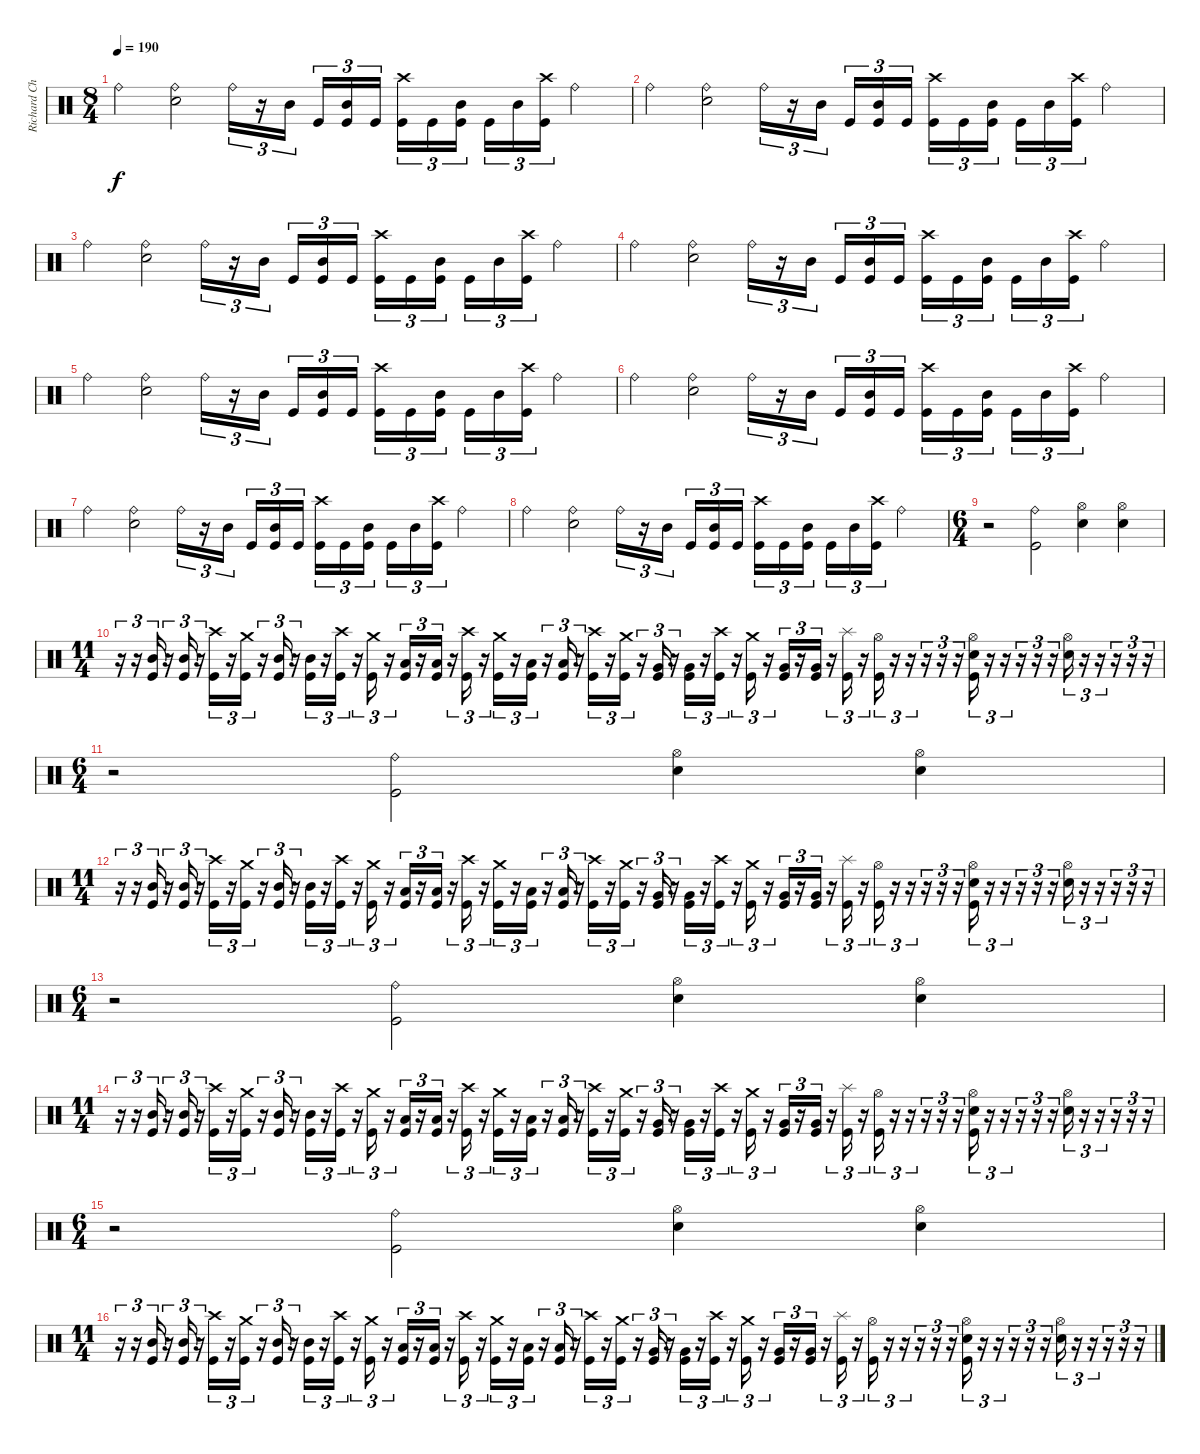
\track ("Richard Christy" "Richard Ch") {instrument percussion}
\staff {score}
\articulation defaults
\ts (8 4)
\tempo 190
\clef neutral
\ks c "Ride (bell)".2{dy f}
("Ride (bell)" "Snare (hit) 2").2 "Ride (bell)".16{tu (3 2)} r.16{tu (3 2)} "Mid Tom (hit)".16{tu (3 2)} "Kick (hit)".16{tu (3 2)} ("Mid Tom (hit)" "Kick (hit)").16{tu (3 2)} "Kick (hit)".16{tu (3 2)} ("Crash high (hit)" "Kick (hit)").16{tu (3 2)} "Kick (hit)".16{tu (3 2)} ("Mid Tom (hit)" "Kick (hit)").16{tu (3 2)} "Kick (hit)".16{tu (3 2)} "Mid Tom (hit)".16{tu (3 2)} ("Crash high (hit)" "Kick (hit)").16{tu (3 2)} "Ride (bell)".2 |
"Ride (bell)".2 ("Ride (bell)" "Snare (hit) 2").2 "Ride (bell)".16{tu (3 2)} r.16{tu (3 2)} "Mid Tom (hit)".16{tu (3 2)} "Kick (hit)".16{tu (3 2)} ("Mid Tom (hit)" "Kick (hit)").16{tu (3 2)} "Kick (hit)".16{tu (3 2)} ("Crash high (hit)" "Kick (hit)").16{tu (3 2)} "Kick (hit)".16{tu (3 2)} ("Mid Tom (hit)" "Kick (hit)").16{tu (3 2)} "Kick (hit)".16{tu (3 2)} "Mid Tom (hit)".16{tu (3 2)} ("Crash high (hit)" "Kick (hit)").16{tu (3 2)} "Ride (bell)".2 |
"Ride (bell)".2 ("Ride (bell)" "Snare (hit) 2").2 "Ride (bell)".16{tu (3 2)} r.16{tu (3 2)} "Mid Tom (hit)".16{tu (3 2)} "Kick (hit)".16{tu (3 2)} ("Mid Tom (hit)" "Kick (hit)").16{tu (3 2)} "Kick (hit)".16{tu (3 2)} ("Crash high (hit)" "Kick (hit)").16{tu (3 2)} "Kick (hit)".16{tu (3 2)} ("Mid Tom (hit)" "Kick (hit)").16{tu (3 2)} "Kick (hit)".16{tu (3 2)} "Mid Tom (hit)".16{tu (3 2)} ("Crash high (hit)" "Kick (hit)").16{tu (3 2)} "Ride (bell)".2 |
"Ride (bell)".2 ("Ride (bell)" "Snare (hit) 2").2 "Ride (bell)".16{tu (3 2)} r.16{tu (3 2)} "Mid Tom (hit)".16{tu (3 2)} "Kick (hit)".16{tu (3 2)} ("Mid Tom (hit)" "Kick (hit)").16{tu (3 2)} "Kick (hit)".16{tu (3 2)} ("Crash high (hit)" "Kick (hit)").16{tu (3 2)} "Kick (hit)".16{tu (3 2)} ("Mid Tom (hit)" "Kick (hit)").16{tu (3 2)} "Kick (hit)".16{tu (3 2)} "Mid Tom (hit)".16{tu (3 2)} ("Crash high (hit)" "Kick (hit)").16{tu (3 2)} "Ride (bell)".2 |
"Ride (bell)".2 ("Ride (bell)" "Snare (hit) 2").2 "Ride (bell)".16{tu (3 2)} r.16{tu (3 2)} "Mid Tom (hit)".16{tu (3 2)} "Kick (hit)".16{tu (3 2)} ("Mid Tom (hit)" "Kick (hit)").16{tu (3 2)} "Kick (hit)".16{tu (3 2)} ("Crash high (hit)" "Kick (hit)").16{tu (3 2)} "Kick (hit)".16{tu (3 2)} ("Mid Tom (hit)" "Kick (hit)").16{tu (3 2)} "Kick (hit)".16{tu (3 2)} "Mid Tom (hit)".16{tu (3 2)} ("Crash high (hit)" "Kick (hit)").16{tu (3 2)} "Ride (bell)".2 |
"Ride (bell)".2 ("Ride (bell)" "Snare (hit) 2").2 "Ride (bell)".16{tu (3 2)} r.16{tu (3 2)} "Mid Tom (hit)".16{tu (3 2)} "Kick (hit)".16{tu (3 2)} ("Mid Tom (hit)" "Kick (hit)").16{tu (3 2)} "Kick (hit)".16{tu (3 2)} ("Crash high (hit)" "Kick (hit)").16{tu (3 2)} "Kick (hit)".16{tu (3 2)} ("Mid Tom (hit)" "Kick (hit)").16{tu (3 2)} "Kick (hit)".16{tu (3 2)} "Mid Tom (hit)".16{tu (3 2)} ("Crash high (hit)" "Kick (hit)").16{tu (3 2)} "Ride (bell)".2 |
"Ride (bell)".2 ("Ride (bell)" "Snare (hit) 2").2 "Ride (bell)".16{tu (3 2)} r.16{tu (3 2)} "Mid Tom (hit)".16{tu (3 2)} "Kick (hit)".16{tu (3 2)} ("Mid Tom (hit)" "Kick (hit)").16{tu (3 2)} "Kick (hit)".16{tu (3 2)} ("Crash high (hit)" "Kick (hit)").16{tu (3 2)} "Kick (hit)".16{tu (3 2)} ("Mid Tom (hit)" "Kick (hit)").16{tu (3 2)} "Kick (hit)".16{tu (3 2)} "Mid Tom (hit)".16{tu (3 2)} ("Crash high (hit)" "Kick (hit)").16{tu (3 2)} "Ride (bell)".2 |
"Ride (bell)".2 ("Ride (bell)" "Snare (hit) 2").2 "Ride (bell)".16{tu (3 2)} r.16{tu (3 2)} "Mid Tom (hit)".16{tu (3 2)} "Kick (hit)".16{tu (3 2)} ("Mid Tom (hit)" "Kick (hit)").16{tu (3 2)} "Kick (hit)".16{tu (3 2)} ("Crash high (hit)" "Kick (hit)").16{tu (3 2)} "Kick (hit)".16{tu (3 2)} ("Mid Tom (hit)" "Kick (hit)").16{tu (3 2)} "Kick (hit)".16{tu (3 2)} "Mid Tom (hit)".16{tu (3 2)} ("Crash high (hit)" "Kick (hit)").16{tu (3 2)} "Ride (bell)".2 |
\ts (6 4)
r.2 ("Ride (bell)" "Kick (hit)").2 ("Hi-Hat (open)" "Snare (hit) 2").4 ("Hi-Hat (open)" "Snare (hit) 2").4 |
\ts (11 4)
r.16{tu (3 2)} r.16{tu (3 2)} ("Mid Tom (hit)" "Kick (hit)").16{tu (3 2)} r.16{tu (3 2)} ("Mid Tom (hit)" "Kick (hit)").16{tu (3 2)} r.16{tu (3 2)} ("Crash high (hit)" "Kick (hit)").16{tu (3 2)} r.16{tu (3 2)} ("Crash medium (hit)" "Kick (hit)").16{tu (3 2)} r.16{tu (3 2)} ("Mid Tom (hit)" "Kick (hit)").16{tu (3 2)} r.16{tu (3 2)} ("Mid Tom (hit)" "Kick (hit)").16{tu (3 2)} r.16{tu (3 2)} ("Crash high (hit)" "Kick (hit)").16{tu (3 2)} r.16{tu (3 2)} ("Crash medium (hit)" "Kick (hit)").16{tu (3 2)} r.16{tu (3 2)} ("Low Tom (hit)" "Kick (hit)").16{tu (3 2)} r.16{tu (3 2)} ("Low Tom (hit)" "Kick (hit)").16{tu (3 2)} r.16{tu (3 2)} ("Crash high (hit)" "Kick (hit)").16{tu (3 2)} r.16{tu (3 2)} ("Crash medium (hit)" "Kick (hit)").16{tu (3 2)} r.16{tu (3 2)} ("Low Tom (hit)" "Kick (hit)").16{tu (3 2)} r.16{tu (3 2)} ("Low Tom (hit)" "Kick (hit)").16{tu (3 2)} r.16{tu (3 2)} ("Crash high (hit)" "Kick (hit)").16{tu (3 2)} r.16{tu (3 2)} ("Crash medium (hit)" "Kick (hit)").16{tu (3 2)} r.16{tu (3 2)} ("Very Low Tom (hit)" "Kick (hit)").16{tu (3 2)} r.16{tu (3 2)} ("Very Low Tom (hit)" "Kick (hit)").16{tu (3 2)} r.16{tu (3 2)} ("Crash high (hit)" "Kick (hit)").16{tu (3 2)} r.16{tu (3 2)} ("Crash medium (hit)" "Kick (hit)").16{tu (3 2)} r.16{tu (3 2)} ("Very Low Tom (hit)" "Kick (hit)").16{tu (3 2)} r.16{tu (3 2)} ("Very Low Tom (hit)" "Kick (hit)").16{tu (3 2)} r.16{tu (3 2)} ("Splash (hit)" "Kick (hit)").16{tu (3 2)} r.16{tu (3 2)} ("Hi-Hat (open)" "Kick (hit)").16{tu (3 2)} r.16{tu (3 2)} r.16{tu (3 2)} r.16{tu (3 2)} r.16{tu (3 2)} r.16{tu (3 2)} ("Hi-Hat (open)" "Snare (hit) 2" "Kick (hit)").16{tu (3 2)} r.16{tu (3 2)} r.16{tu (3 2)} r.16{tu (3 2)} r.16{tu (3 2)} r.16{tu (3 2)} ("Hi-Hat (open)" "Snare (hit) 2").16{tu (3 2)} r.16{tu (3 2)} r.16{tu (3 2)} r.16{tu (3 2)} r.16{tu (3 2)} r.16{tu (3 2)} |
\ts (6 4)
r.2 ("Ride (bell)" "Kick (hit)").2 ("Hi-Hat (open)" "Snare (hit) 2").4 ("Hi-Hat (open)" "Snare (hit) 2").4 |
\ts (11 4)
r.16{tu (3 2)} r.16{tu (3 2)} ("Mid Tom (hit)" "Kick (hit)").16{tu (3 2)} r.16{tu (3 2)} ("Mid Tom (hit)" "Kick (hit)").16{tu (3 2)} r.16{tu (3 2)} ("Crash high (hit)" "Kick (hit)").16{tu (3 2)} r.16{tu (3 2)} ("Crash medium (hit)" "Kick (hit)").16{tu (3 2)} r.16{tu (3 2)} ("Mid Tom (hit)" "Kick (hit)").16{tu (3 2)} r.16{tu (3 2)} ("Mid Tom (hit)" "Kick (hit)").16{tu (3 2)} r.16{tu (3 2)} ("Crash high (hit)" "Kick (hit)").16{tu (3 2)} r.16{tu (3 2)} ("Crash medium (hit)" "Kick (hit)").16{tu (3 2)} r.16{tu (3 2)} ("Low Tom (hit)" "Kick (hit)").16{tu (3 2)} r.16{tu (3 2)} ("Low Tom (hit)" "Kick (hit)").16{tu (3 2)} r.16{tu (3 2)} ("Crash high (hit)" "Kick (hit)").16{tu (3 2)} r.16{tu (3 2)} ("Crash medium (hit)" "Kick (hit)").16{tu (3 2)} r.16{tu (3 2)} ("Low Tom (hit)" "Kick (hit)").16{tu (3 2)} r.16{tu (3 2)} ("Low Tom (hit)" "Kick (hit)").16{tu (3 2)} r.16{tu (3 2)} ("Crash high (hit)" "Kick (hit)").16{tu (3 2)} r.16{tu (3 2)} ("Crash medium (hit)" "Kick (hit)").16{tu (3 2)} r.16{tu (3 2)} ("Very Low Tom (hit)" "Kick (hit)").16{tu (3 2)} r.16{tu (3 2)} ("Very Low Tom (hit)" "Kick (hit)").16{tu (3 2)} r.16{tu (3 2)} ("Crash high (hit)" "Kick (hit)").16{tu (3 2)} r.16{tu (3 2)} ("Crash medium (hit)" "Kick (hit)").16{tu (3 2)} r.16{tu (3 2)} ("Very Low Tom (hit)" "Kick (hit)").16{tu (3 2)} r.16{tu (3 2)} ("Very Low Tom (hit)" "Kick (hit)").16{tu (3 2)} r.16{tu (3 2)} ("Splash (hit)" "Kick (hit)").16{tu (3 2)} r.16{tu (3 2)} ("Hi-Hat (open)" "Kick (hit)").16{tu (3 2)} r.16{tu (3 2)} r.16{tu (3 2)} r.16{tu (3 2)} r.16{tu (3 2)} r.16{tu (3 2)} ("Hi-Hat (open)" "Snare (hit) 2" "Kick (hit)").16{tu (3 2)} r.16{tu (3 2)} r.16{tu (3 2)} r.16{tu (3 2)} r.16{tu (3 2)} r.16{tu (3 2)} ("Hi-Hat (open)" "Snare (hit) 2").16{tu (3 2)} r.16{tu (3 2)} r.16{tu (3 2)} r.16{tu (3 2)} r.16{tu (3 2)} r.16{tu (3 2)} |
\ts (6 4)
r.2 ("Ride (bell)" "Kick (hit)").2 ("Hi-Hat (open)" "Snare (hit) 2").4 ("Hi-Hat (open)" "Snare (hit) 2").4 |
\ts (11 4)
r.16{tu (3 2)} r.16{tu (3 2)} ("Mid Tom (hit)" "Kick (hit)").16{tu (3 2)} r.16{tu (3 2)} ("Mid Tom (hit)" "Kick (hit)").16{tu (3 2)} r.16{tu (3 2)} ("Crash high (hit)" "Kick (hit)").16{tu (3 2)} r.16{tu (3 2)} ("Crash medium (hit)" "Kick (hit)").16{tu (3 2)} r.16{tu (3 2)} ("Mid Tom (hit)" "Kick (hit)").16{tu (3 2)} r.16{tu (3 2)} ("Mid Tom (hit)" "Kick (hit)").16{tu (3 2)} r.16{tu (3 2)} ("Crash high (hit)" "Kick (hit)").16{tu (3 2)} r.16{tu (3 2)} ("Crash medium (hit)" "Kick (hit)").16{tu (3 2)} r.16{tu (3 2)} ("Low Tom (hit)" "Kick (hit)").16{tu (3 2)} r.16{tu (3 2)} ("Low Tom (hit)" "Kick (hit)").16{tu (3 2)} r.16{tu (3 2)} ("Crash high (hit)" "Kick (hit)").16{tu (3 2)} r.16{tu (3 2)} ("Crash medium (hit)" "Kick (hit)").16{tu (3 2)} r.16{tu (3 2)} ("Low Tom (hit)" "Kick (hit)").16{tu (3 2)} r.16{tu (3 2)} ("Low Tom (hit)" "Kick (hit)").16{tu (3 2)} r.16{tu (3 2)} ("Crash high (hit)" "Kick (hit)").16{tu (3 2)} r.16{tu (3 2)} ("Crash medium (hit)" "Kick (hit)").16{tu (3 2)} r.16{tu (3 2)} ("Very Low Tom (hit)" "Kick (hit)").16{tu (3 2)} r.16{tu (3 2)} ("Very Low Tom (hit)" "Kick (hit)").16{tu (3 2)} r.16{tu (3 2)} ("Crash high (hit)" "Kick (hit)").16{tu (3 2)} r.16{tu (3 2)} ("Crash medium (hit)" "Kick (hit)").16{tu (3 2)} r.16{tu (3 2)} ("Very Low Tom (hit)" "Kick (hit)").16{tu (3 2)} r.16{tu (3 2)} ("Very Low Tom (hit)" "Kick (hit)").16{tu (3 2)} r.16{tu (3 2)} ("Splash (hit)" "Kick (hit)").16{tu (3 2)} r.16{tu (3 2)} ("Hi-Hat (open)" "Kick (hit)").16{tu (3 2)} r.16{tu (3 2)} r.16{tu (3 2)} r.16{tu (3 2)} r.16{tu (3 2)} r.16{tu (3 2)} ("Hi-Hat (open)" "Snare (hit) 2" "Kick (hit)").16{tu (3 2)} r.16{tu (3 2)} r.16{tu (3 2)} r.16{tu (3 2)} r.16{tu (3 2)} r.16{tu (3 2)} ("Hi-Hat (open)" "Snare (hit) 2").16{tu (3 2)} r.16{tu (3 2)} r.16{tu (3 2)} r.16{tu (3 2)} r.16{tu (3 2)} r.16{tu (3 2)} |
\ts (6 4)
r.2 ("Ride (bell)" "Kick (hit)").2 ("Hi-Hat (open)" "Snare (hit) 2").4 ("Hi-Hat (open)" "Snare (hit) 2").4 |
\ts (11 4)
r.16{tu (3 2)} r.16{tu (3 2)} ("Mid Tom (hit)" "Kick (hit)").16{tu (3 2)} r.16{tu (3 2)} ("Mid Tom (hit)" "Kick (hit)").16{tu (3 2)} r.16{tu (3 2)} ("Crash high (hit)" "Kick (hit)").16{tu (3 2)} r.16{tu (3 2)} ("Crash medium (hit)" "Kick (hit)").16{tu (3 2)} r.16{tu (3 2)} ("Mid Tom (hit)" "Kick (hit)").16{tu (3 2)} r.16{tu (3 2)} ("Mid Tom (hit)" "Kick (hit)").16{tu (3 2)} r.16{tu (3 2)} ("Crash high (hit)" "Kick (hit)").16{tu (3 2)} r.16{tu (3 2)} ("Crash medium (hit)" "Kick (hit)").16{tu (3 2)} r.16{tu (3 2)} ("Low Tom (hit)" "Kick (hit)").16{tu (3 2)} r.16{tu (3 2)} ("Low Tom (hit)" "Kick (hit)").16{tu (3 2)} r.16{tu (3 2)} ("Crash high (hit)" "Kick (hit)").16{tu (3 2)} r.16{tu (3 2)} ("Crash medium (hit)" "Kick (hit)").16{tu (3 2)} r.16{tu (3 2)} ("Low Tom (hit)" "Kick (hit)").16{tu (3 2)} r.16{tu (3 2)} ("Low Tom (hit)" "Kick (hit)").16{tu (3 2)} r.16{tu (3 2)} ("Crash high (hit)" "Kick (hit)").16{tu (3 2)} r.16{tu (3 2)} ("Crash medium (hit)" "Kick (hit)").16{tu (3 2)} r.16{tu (3 2)} ("Very Low Tom (hit)" "Kick (hit)").16{tu (3 2)} r.16{tu (3 2)} ("Very Low Tom (hit)" "Kick (hit)").16{tu (3 2)} r.16{tu (3 2)} ("Crash high (hit)" "Kick (hit)").16{tu (3 2)} r.16{tu (3 2)} ("Crash medium (hit)" "Kick (hit)").16{tu (3 2)} r.16{tu (3 2)} ("Very Low Tom (hit)" "Kick (hit)").16{tu (3 2)} r.16{tu (3 2)} ("Very Low Tom (hit)" "Kick (hit)").16{tu (3 2)} r.16{tu (3 2)} ("Splash (hit)" "Kick (hit)").16{tu (3 2)} r.16{tu (3 2)} ("Hi-Hat (open)" "Kick (hit)").16{tu (3 2)} r.16{tu (3 2)} r.16{tu (3 2)} r.16{tu (3 2)} r.16{tu (3 2)} r.16{tu (3 2)} ("Hi-Hat (open)" "Snare (hit) 2" "Kick (hit)").16{tu (3 2)} r.16{tu (3 2)} r.16{tu (3 2)} r.16{tu (3 2)} r.16{tu (3 2)} r.16{tu (3 2)} ("Hi-Hat (open)" "Snare (hit) 2").16{tu (3 2)} r.16{tu (3 2)} r.16{tu (3 2)} r.16{tu (3 2)} r.16{tu (3 2)} r.16{tu (3 2)}
